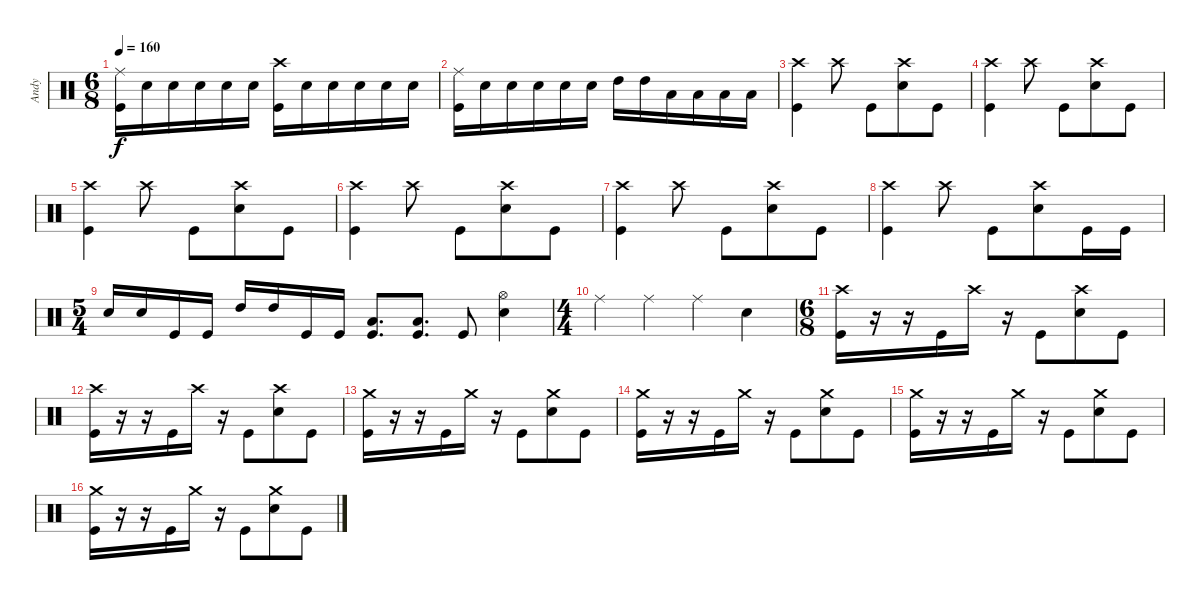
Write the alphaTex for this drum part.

\track ("Andy" "Andy") {instrument percussion}
\staff {score}
\articulation defaults
\ts (6 8)
\tempo 160
\clef neutral
\ks c
("Kick (hit)" "Ride (middle)").16{dy f} "Snare (hit) 2".16 "Snare (hit) 2".16 "Snare (hit) 2".16 "Snare (hit) 2".16 "Snare (hit) 2".16 ("Kick (hit)" "Crash high (hit)").16 "Snare (hit) 2".16 "Snare (hit) 2".16 "Snare (hit) 2".16 "Snare (hit) 2".16 "Snare (hit) 2".16 |
("Kick (hit)" "Ride (middle)").16 "Snare (hit) 2".16 "Snare (hit) 2".16 "Snare (hit) 2".16 "Snare (hit) 2".16 "Snare (hit) 2".16 "High Tom (hit)".16 "High Tom (hit)".16 "Low Floor Tom (hit)".16 "Low Floor Tom (hit)".16 "Low Floor Tom (hit)".16 "Low Floor Tom (hit)".16 |
("Kick (hit)" "Crash high (hit)").4 "Crash high (hit)".8 "Kick (hit)".8 ("Snare (hit) 2" "Crash high (hit)").8 "Kick (hit)".8 |
("Kick (hit)" "Crash high (hit)").4 "Crash high (hit)".8 "Kick (hit)".8 ("Snare (hit) 2" "Crash high (hit)").8 "Kick (hit)".8 |
("Kick (hit)" "Crash high (hit)").4 "Crash high (hit)".8 "Kick (hit)".8 ("Snare (hit) 2" "Crash high (hit)").8 "Kick (hit)".8 |
("Kick (hit)" "Crash high (hit)").4 "Crash high (hit)".8 "Kick (hit)".8 ("Snare (hit) 2" "Crash high (hit)").8 "Kick (hit)".8 |
("Kick (hit)" "Crash high (hit)").4 "Crash high (hit)".8 "Kick (hit)".8 ("Snare (hit) 2" "Crash high (hit)").8 "Kick (hit)".8 |
("Kick (hit)" "Crash high (hit)").4 "Crash high (hit)".8 "Kick (hit)".8 ("Snare (hit) 2" "Crash high (hit)").8 "Kick (hit)".16 "Kick (hit)".16 |
\ts (5 4)
"Snare (hit) 2".16 "Snare (hit) 2".16 "Kick (hit)".16 "Kick (hit)".16 "High Tom (hit)".16 "High Tom (hit)".16 "Kick (hit)".16 "Kick (hit)".16 ("Kick (hit)" "Low Floor Tom (hit)").8{d} ("Kick (hit)" "Low Floor Tom (hit)").8{d} "Kick (hit)".8 ("Snare (hit) 2" "Hi-Hat (open)").4 |
\ts (4 4)
"Ride (middle)".4 "Ride (middle)".4 "Ride (middle)".4 "Snare (hit) 2".4 |
\ts (6 8)
("Crash high (hit)" "Kick (hit)").16 r.16 r.16 "Kick (hit)".16 "Crash high (hit)".16 r.16 "Kick (hit)".8 ("Snare (hit) 2" "Crash high (hit)").8 "Kick (hit)".8 |
("Crash high (hit)" "Kick (hit)").16 r.16 r.16 "Kick (hit)".16 "Crash high (hit)".16 r.16 "Kick (hit)".8 ("Snare (hit) 2" "Crash high (hit)").8 "Kick (hit)".8 |
("Crash medium (hit)" "Kick (hit)").16 r.16 r.16 "Kick (hit)".16 "Crash medium (hit)".16 r.16 "Kick (hit)".8 ("Snare (hit) 2" "Crash medium (hit)").8 "Kick (hit)".8 |
("Crash medium (hit)" "Kick (hit)").16 r.16 r.16 "Kick (hit)".16 "Crash medium (hit)".16 r.16 "Kick (hit)".8 ("Snare (hit) 2" "Crash medium (hit)").8 "Kick (hit)".8 |
("Crash medium (hit)" "Kick (hit)").16 r.16 r.16 "Kick (hit)".16 "Crash medium (hit)".16 r.16 "Kick (hit)".8 ("Snare (hit) 2" "Crash medium (hit)").8 "Kick (hit)".8 |
("Crash medium (hit)" "Kick (hit)").16 r.16 r.16 "Kick (hit)".16 "Crash medium (hit)".16 r.16 "Kick (hit)".8 ("Snare (hit) 2" "Crash medium (hit)").8 "Kick (hit)".8
